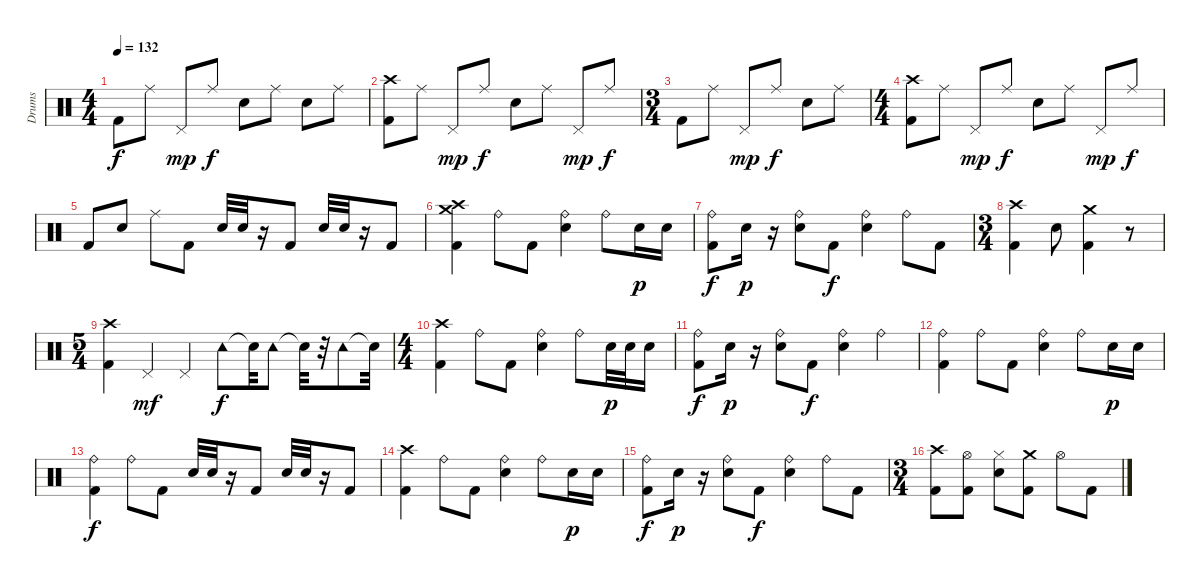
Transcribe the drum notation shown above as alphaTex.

\track ("Drums" "Drums") {instrument percussion}
\staff {score}
\articulation defaults
\ts (4 4)
\tempo 132
\clef neutral
\ks c "Kick (hit) 2".8{dy f} "Ride (middle)".8 "Pedal Hi-Hat (hit)".8{dy mp} "Ride (middle)".8{dy f} "Electric Snare (hit)".8 "Ride (middle)".8 "Electric Snare (hit)".8 "Ride (middle)".8
|
("Crash high (hit)" "Kick (hit) 2").8 "Ride (middle)".8 "Pedal Hi-Hat (hit)".8{dy mp} "Ride (middle)".8{dy f} "Electric Snare (hit)".8 "Ride (middle)".8 "Pedal Hi-Hat (hit)".8{dy mp} "Ride (middle)".8{dy f} |
\ts (3 4)
"Kick (hit) 2".8 "Ride (middle)".8 "Pedal Hi-Hat (hit)".8{dy mp} "Ride (middle)".8{dy f} "Electric Snare (hit)".8 "Ride (middle)".8 |
\ts (4 4)
("Crash high (hit)" "Kick (hit) 2").8 "Ride (middle)".8 "Pedal Hi-Hat (hit)".8{dy mp} "Ride (middle)".8{dy f} "Electric Snare (hit)".8 "Ride (middle)".8 "Pedal Hi-Hat (hit)".8{dy mp} "Ride (middle)".8{dy f} |
"Kick (hit) 2".8 "Electric Snare (hit)".8 "Ride (middle)".8 "Kick (hit) 2".8 "Electric Snare (hit)".32 "Electric Snare (hit)".32 r.16 "Kick (hit) 2".8 "Electric Snare (hit)".32 "Electric Snare (hit)".32 r.16 "Kick (hit) 2".8 |
("Crash high (hit)" "Kick (hit) 2" "Crash medium (hit)").4 "Ride (bell)".8 "Kick (hit) 2".8 ("Ride (bell)" "Electric Snare (hit)").4 "Ride (bell)".8 "Electric Snare (hit)".16{dy p} "Electric Snare (hit)".16 |
("Ride (bell)" "Kick (hit) 2").8{dy f} "Electric Snare (hit)".16{dy p} r.16 ("Ride (bell)" "Electric Snare (hit)").8 "Kick (hit) 2".8{dy f} ("Ride (bell)" "Electric Snare (hit)").4 "Ride (bell)".8 "Kick (hit) 2".8 |
\ts (3 4)
("Crash high (hit)" "Kick (hit) 2").4 "Electric Snare (hit)".8 ("Kick (hit) 2" "Crash medium (hit)").4 r.8 |
\ts (5 4)
("Crash high (hit)" "Kick (hit) 2").4 "Pedal Hi-Hat (hit)".4{dy mf} "Pedal Hi-Hat (hit)".4 "Tambourine (hit)".8{dy f} "Snare (hit)"{t}.32 "Tambourine (hit)".8 "Snare (hit)"{t}.32 r.32 "Tambourine (hit)".8 "Snare (hit)"{t}.32 |
\ts (4 4)
("Kick (hit) 2" "Crash high (hit)").4 "Ride (bell)".8 "Kick (hit) 2".8 ("Ride (bell)" "Electric Snare (hit)").4 "Ride (bell)".8 "Electric Snare (hit)".32{dy p} "Electric Snare (hit)".32 "Electric Snare (hit)".16 |
("Ride (bell)" "Kick (hit) 2").8{dy f} "Electric Snare (hit)".16{dy p} r.16 ("Ride (bell)" "Electric Snare (hit)").8 "Kick (hit) 2".8{dy f} ("Ride (bell)" "Electric Snare (hit)").4 "Ride (bell)".4 |
("Kick (hit) 2" "Ride (bell)").4 "Ride (bell)".8 "Kick (hit) 2".8 ("Ride (bell)" "Electric Snare (hit)").4 "Ride (bell)".8 "Electric Snare (hit)".16{dy p} "Electric Snare (hit)".16 |
("Kick (hit) 2" "Ride (bell)").4{dy f} "Ride (bell)".8 "Kick (hit) 2".8 "Electric Snare (hit)".32 "Electric Snare (hit)".32 r.16 "Kick (hit) 2".8 "Electric Snare (hit)".32 "Electric Snare (hit)".32 r.16 "Kick (hit) 2".8 |
("Kick (hit) 2" "Crash high (hit)").4 "Ride (bell)".8 "Kick (hit) 2".8 ("Ride (bell)" "Electric Snare (hit)").4 "Ride (bell)".8 "Electric Snare (hit)".16{dy p} "Electric Snare (hit)".16 |
("Ride (bell)" "Kick (hit) 2").8{dy f} "Electric Snare (hit)".16{dy p} r.16 ("Ride (bell)" "Electric Snare (hit)").8 "Kick (hit) 2".8{dy f} ("Ride (bell)" "Electric Snare (hit)").4 "Ride (bell)".8 "Kick (hit) 2".8 |
\ts (3 4)
("Crash high (hit)" "Kick (hit) 2").8 ("Kick (hit) 2" "Hi-Hat (open)").8 ("Electric Snare (hit)" "Hi-Hat (closed)").8 ("Crash medium (hit)" "Kick (hit) 2").8 "Hi-Hat (open)".8 "Kick (hit) 2".8
